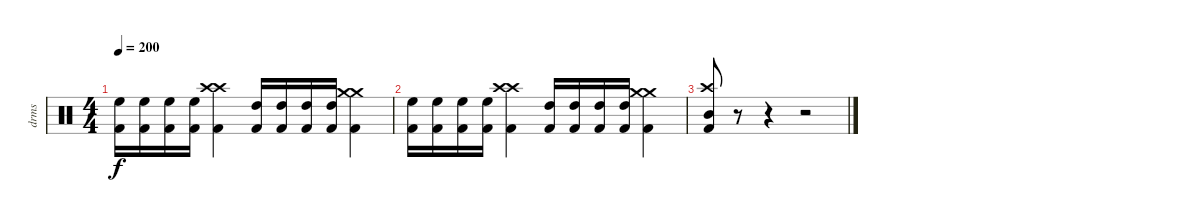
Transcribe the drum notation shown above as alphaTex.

\track ("drms" "drms") {instrument percussion}
\staff {score}
\articulation defaults
\ts (4 4)
\tempo 200
\clef neutral
\ks c
("High Floor Tom (hit)" "Kick (hit) 2").16{dy f} ("High Floor Tom (hit)" "Kick (hit) 2").16 ("High Floor Tom (hit)" "Kick (hit) 2").16 ("High Floor Tom (hit)" "Kick (hit) 2").16 ("Crash high (hit)" "Crash high (hit)" "Kick (hit) 2").4 ("High Tom (hit)" "Kick (hit) 2").16 ("High Tom (hit)" "Kick (hit) 2").16 ("High Tom (hit)" "Kick (hit) 2").16 ("High Tom (hit)" "Kick (hit) 2").16 ("Crash medium (hit)" "Crash medium (hit)" "Kick (hit) 2").4 |
("High Floor Tom (hit)" "Kick (hit) 2").16 ("High Floor Tom (hit)" "Kick (hit) 2").16 ("High Floor Tom (hit)" "Kick (hit) 2").16 ("High Floor Tom (hit)" "Kick (hit) 2").16 ("Crash high (hit)" "Crash high (hit)" "Kick (hit) 2").4 ("High Tom (hit)" "Kick (hit) 2").16 ("High Tom (hit)" "Kick (hit) 2").16 ("High Tom (hit)" "Kick (hit) 2").16 ("High Tom (hit)" "Kick (hit) 2").16 ("Crash medium (hit)" "Crash medium (hit)" "Kick (hit) 2").4 |
("Crash high (hit)" "Mid Tom (hit)" "Kick (hit) 2").8 r.8 r.4 r.2
